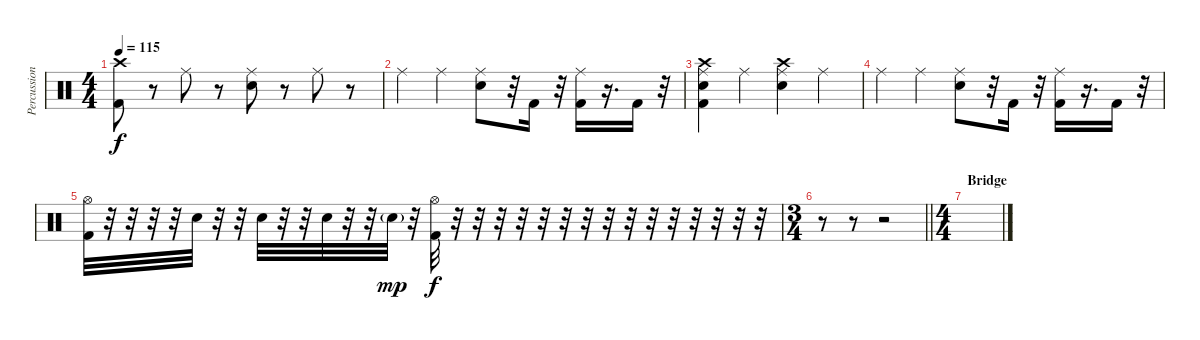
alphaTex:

\track ("Percussion" "Percussion") {instrument percussion}
\staff {score}
\articulation defaults
\ts (4 4)
\tempo 115
\clef neutral
\ks c
("Crash high (hit)" "Kick (hit) 2").8{dy f} r.8 "Ride (middle)".8 r.8 ("Ride (middle)" "Electric Snare (hit)").8 r.8 "Ride (middle)".8 r.8 |
"Ride (middle)".4 "Ride (middle)".4 ("Ride (middle)" "Electric Snare (hit)").8 r.32 "Kick (hit) 2".16 r.32 ("Ride (middle)" "Kick (hit) 2").16 r.16{d} "Kick (hit) 2".16 r.32 |
("Ride (middle)" "Crash high (hit)" "Electric Snare (hit)" "Kick (hit) 2").4 "Ride (middle)".4 ("Crash high (hit)" "Ride (middle)" "Electric Snare (hit)").4 "Ride (middle)".4 |
"Ride (middle)".4 "Ride (middle)".4 ("Ride (middle)" "Electric Snare (hit)").8 r.32 "Kick (hit) 2".16 r.32 ("Ride (middle)" "Kick (hit) 2").16 r.16{d} "Kick (hit) 2".16 r.32 |
("Hi-Hat (open)" "Kick (hit) 2").32 r.32 r.32 r.32 r.32 "Electric Snare (hit)".32 r.32 r.32 "Electric Snare (hit)".32 r.32 r.32 "Electric Snare (hit)".32 r.32 r.32 "Electric Snare (hit)"{g}.32{dy mp} r.32 ("Hi-Hat (open)" "Kick (hit) 2").32{dy f} r.32 r.32 r.32 r.32 r.32 r.32 r.32 r.32 r.32 r.32 r.32 r.32 r.32 r.32 r.32 |
\ts (3 4)
\barLineRight lightlight
r.8 r.8 r.2 |
\ts (4 4)
\section ("" "Bridge")
